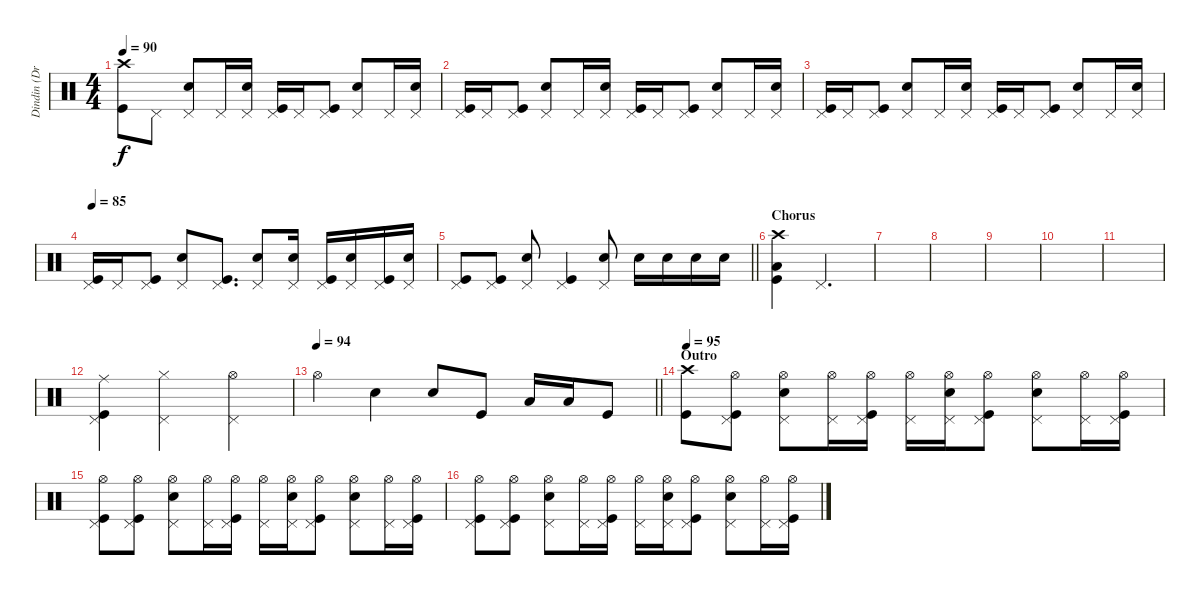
\track ("Dindin (Drums)" "Dindin (Dr") {instrument percussion}
\staff {score}
\articulation defaults
\ts (4 4)
\tempo 90
\clef neutral
\ks c
("Crash high (hit)" "Kick (hit)").8{dy f} "Pedal Hi-Hat (hit)".8 ("Pedal Hi-Hat (hit)" "Snare (hit) 2").8 "Pedal Hi-Hat (hit)".16 ("Pedal Hi-Hat (hit)" "Snare (hit) 2").16 ("Pedal Hi-Hat (hit)" "Kick (hit)").16 "Pedal Hi-Hat (hit)".16 ("Pedal Hi-Hat (hit)" "Kick (hit)").8 ("Pedal Hi-Hat (hit)" "Snare (hit) 2").8 "Pedal Hi-Hat (hit)".16 ("Pedal Hi-Hat (hit)" "Snare (hit) 2").16 |
("Pedal Hi-Hat (hit)" "Kick (hit)").16 "Pedal Hi-Hat (hit)".16 ("Pedal Hi-Hat (hit)" "Kick (hit)").8 ("Pedal Hi-Hat (hit)" "Snare (hit) 2").8 "Pedal Hi-Hat (hit)".16 ("Pedal Hi-Hat (hit)" "Snare (hit) 2").16 ("Pedal Hi-Hat (hit)" "Kick (hit)").16 "Pedal Hi-Hat (hit)".16 ("Pedal Hi-Hat (hit)" "Kick (hit)").8 ("Pedal Hi-Hat (hit)" "Snare (hit) 2").8 "Pedal Hi-Hat (hit)".16 ("Pedal Hi-Hat (hit)" "Snare (hit) 2").16 |
("Pedal Hi-Hat (hit)" "Kick (hit)").16 "Pedal Hi-Hat (hit)".16 ("Pedal Hi-Hat (hit)" "Kick (hit)").8 ("Pedal Hi-Hat (hit)" "Snare (hit) 2").8 "Pedal Hi-Hat (hit)".16 ("Pedal Hi-Hat (hit)" "Snare (hit) 2").16 ("Pedal Hi-Hat (hit)" "Kick (hit)").16 "Pedal Hi-Hat (hit)".16 ("Pedal Hi-Hat (hit)" "Kick (hit)").8 ("Pedal Hi-Hat (hit)" "Snare (hit) 2").8 "Pedal Hi-Hat (hit)".16 ("Pedal Hi-Hat (hit)" "Snare (hit) 2").16 |
\tempo 85
("Pedal Hi-Hat (hit)" "Kick (hit)").16 "Pedal Hi-Hat (hit)".16 ("Pedal Hi-Hat (hit)" "Kick (hit)").8 ("Pedal Hi-Hat (hit)" "Snare (hit) 2").8 ("Pedal Hi-Hat (hit)" "Kick (hit)").8{d} ("Pedal Hi-Hat (hit)" "Snare (hit) 2").8 ("Pedal Hi-Hat (hit)" "Snare (hit) 2").16 ("Pedal Hi-Hat (hit)" "Kick (hit)").16 ("Pedal Hi-Hat (hit)" "Snare (hit) 2").16 ("Pedal Hi-Hat (hit)" "Kick (hit)").16 ("Pedal Hi-Hat (hit)" "Snare (hit) 2").16 |
\barLineRight lightlight
("Pedal Hi-Hat (hit)" "Kick (hit)").8 ("Pedal Hi-Hat (hit)" "Kick (hit)").8 ("Pedal Hi-Hat (hit)" "Snare (hit) 2").8 ("Pedal Hi-Hat (hit)" "Kick (hit)").4 ("Pedal Hi-Hat (hit)" "Snare (hit) 2").8 "Snare (hit) 2".16 "Snare (hit) 2".16 "Snare (hit) 2".16 "Snare (hit) 2".16 |
\section ("" "Chorus")
("Crash high (hit)" "Low Tom (hit)" "Kick (hit)").4 "Pedal Hi-Hat (hit)".2{d} |
|
|
|
|
|
("Ride (middle)" "Pedal Hi-Hat (hit)" "Kick (hit)").4 ("Pedal Hi-Hat (hit)" "Hi-Hat (closed)").2 ("Hi-Hat (open)" "Pedal Hi-Hat (hit)").4 |
\tempo 94
\barLineRight lightlight "Hi-Hat (open)".4 "Snare (hit) 2".4 "Snare (hit) 2".8 "Kick (hit)".8 "Low Tom (hit)".16 "Low Tom (hit)".16 "Kick (hit)".8
|
\section ("" "Outro")
\tempo 95
("Crash high (hit)" "Kick (hit)").8 ("Pedal Hi-Hat (hit)" "Hi-Hat (open)" "Kick (hit)").8 ("Pedal Hi-Hat (hit)" "Hi-Hat (open)" "Snare (hit) 2").8 ("Pedal Hi-Hat (hit)" "Hi-Hat (open)").16 ("Pedal Hi-Hat (hit)" "Hi-Hat (open)" "Kick (hit)").16 ("Pedal Hi-Hat (hit)" "Hi-Hat (open)").16 ("Pedal Hi-Hat (hit)" "Hi-Hat (open)" "Snare (hit) 2").16 ("Pedal Hi-Hat (hit)" "Hi-Hat (open)" "Kick (hit)").8 ("Pedal Hi-Hat (hit)" "Hi-Hat (open)" "Snare (hit) 2").8 ("Pedal Hi-Hat (hit)" "Hi-Hat (open)").16 ("Pedal Hi-Hat (hit)" "Hi-Hat (open)" "Kick (hit)").16 |
("Pedal Hi-Hat (hit)" "Hi-Hat (open)" "Kick (hit)").8 ("Pedal Hi-Hat (hit)" "Hi-Hat (open)" "Kick (hit)").8 ("Pedal Hi-Hat (hit)" "Hi-Hat (open)" "Snare (hit) 2").8 ("Pedal Hi-Hat (hit)" "Hi-Hat (open)").16 ("Pedal Hi-Hat (hit)" "Hi-Hat (open)" "Kick (hit)").16 ("Pedal Hi-Hat (hit)" "Hi-Hat (open)").16 ("Pedal Hi-Hat (hit)" "Hi-Hat (open)" "Snare (hit) 2").16 ("Pedal Hi-Hat (hit)" "Hi-Hat (open)" "Kick (hit)").8 ("Pedal Hi-Hat (hit)" "Hi-Hat (open)" "Snare (hit) 2").8 ("Pedal Hi-Hat (hit)" "Hi-Hat (open)").16 ("Pedal Hi-Hat (hit)" "Hi-Hat (open)" "Kick (hit)").16 |
("Pedal Hi-Hat (hit)" "Hi-Hat (open)" "Kick (hit)").8 ("Pedal Hi-Hat (hit)" "Hi-Hat (open)" "Kick (hit)").8 ("Pedal Hi-Hat (hit)" "Hi-Hat (open)" "Snare (hit) 2").8 ("Pedal Hi-Hat (hit)" "Hi-Hat (open)").16 ("Pedal Hi-Hat (hit)" "Hi-Hat (open)" "Kick (hit)").16 ("Pedal Hi-Hat (hit)" "Hi-Hat (open)").16 ("Pedal Hi-Hat (hit)" "Hi-Hat (open)" "Snare (hit) 2").16 ("Pedal Hi-Hat (hit)" "Hi-Hat (open)" "Kick (hit)").8 ("Pedal Hi-Hat (hit)" "Hi-Hat (open)" "Snare (hit) 2").8 ("Pedal Hi-Hat (hit)" "Hi-Hat (open)").16 ("Pedal Hi-Hat (hit)" "Hi-Hat (open)" "Kick (hit)").16
